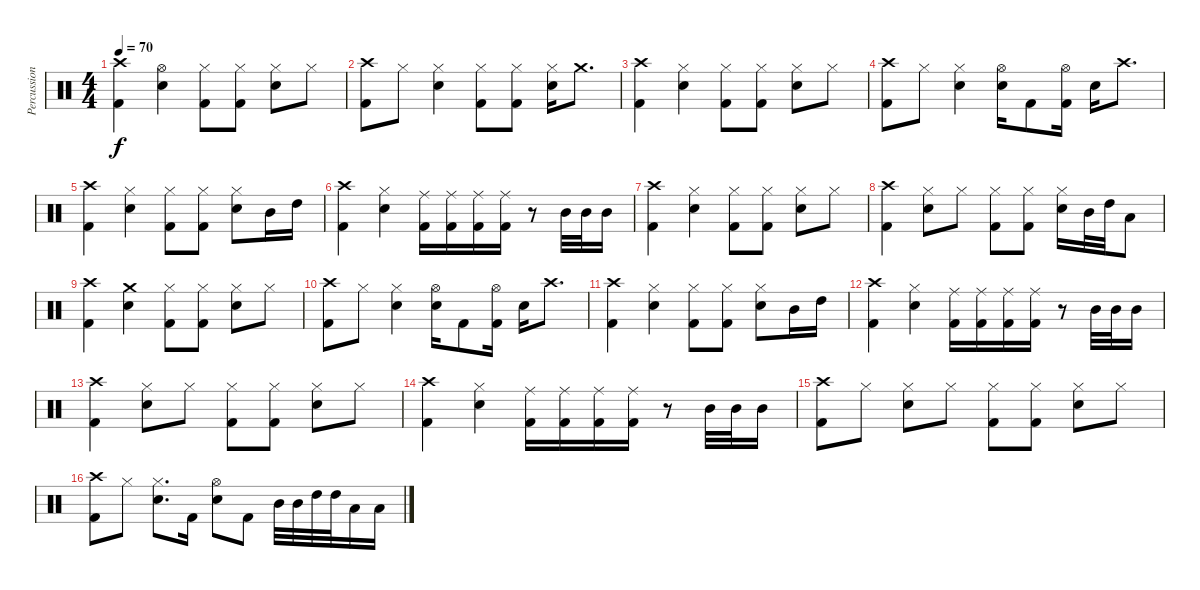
\track ("Percussioni" "Percussion") {instrument percussion}
\staff {score}
\articulation defaults
\ts (4 4)
\tempo 70
\clef neutral
\ks c
("Crash high (hit)" "Kick (hit) 2").4{dy f} ("Hi-Hat (open)" "Snare (hit) 2").4 ("Hi-Hat (closed)" "Kick (hit) 2").8 ("Hi-Hat (closed)" "Kick (hit) 2").8 ("Hi-Hat (closed)" "Snare (hit) 2").8 "Hi-Hat (closed)".8 |
("Crash high (hit)" "Kick (hit) 2").8 "Hi-Hat (closed)".8 ("Hi-Hat (closed)" "Snare (hit) 2").4 ("Hi-Hat (closed)" "Kick (hit) 2").8 ("Hi-Hat (closed)" "Kick (hit) 2").8 ("Hi-Hat (closed)" "Snare (hit) 2").16 "Crash medium (hit)".8{d} |
("Crash high (hit)" "Kick (hit) 2").4 ("Hi-Hat (closed)" "Snare (hit) 2").4 ("Hi-Hat (closed)" "Kick (hit) 2").8 ("Hi-Hat (closed)" "Kick (hit) 2").8 ("Hi-Hat (closed)" "Snare (hit) 2").8 "Hi-Hat (closed)".8 |
("Crash high (hit)" "Kick (hit) 2").8 "Hi-Hat (closed)".8 ("Hi-Hat (closed)" "Snare (hit) 2").4 ("Hi-Hat (open)" "Snare (hit) 2").16 "Kick (hit) 2".8 ("Hi-Hat (open)" "Kick (hit) 2").16 "Snare (hit) 2".16 "Crash high (hit)".8{d} |
("Crash high (hit)" "Kick (hit) 2").4 ("Hi-Hat (closed)" "Snare (hit) 2").4 ("Hi-Hat (closed)" "Kick (hit) 2").8 ("Hi-Hat (closed)" "Kick (hit) 2").8 ("Hi-Hat (closed)" "Snare (hit) 2").8 "Mid Tom (hit)".16 "High Tom (hit)".16 |
("Crash high (hit)" "Kick (hit) 2").4 ("Hi-Hat (closed)" "Snare (hit) 2").4 ("Ride (middle)" "Kick (hit) 2").16 ("Ride (middle)" "Kick (hit) 2").16 ("Ride (middle)" "Kick (hit) 2").16 ("Ride (middle)" "Kick (hit) 2").16 r.8 "Mid Tom (hit)".32 "Mid Tom (hit)".32 "Mid Tom (hit)".16 |
("Crash high (hit)" "Kick (hit) 2").4 ("Hi-Hat (closed)" "Snare (hit) 2").4 ("Hi-Hat (closed)" "Kick (hit) 2").8 ("Hi-Hat (closed)" "Kick (hit) 2").8 ("Hi-Hat (closed)" "Snare (hit) 2").8 "Hi-Hat (closed)".8 |
("Crash high (hit)" "Kick (hit) 2").4 ("Hi-Hat (closed)" "Snare (hit) 2").8 "Hi-Hat (closed)".8 ("Hi-Hat (closed)" "Kick (hit) 2").8 ("Hi-Hat (closed)" "Kick (hit) 2").8 ("Hi-Hat (closed)" "Snare (hit) 2").16 "Mid Tom (hit)".32 "High Tom (hit)".32 "Low Floor Tom (hit)".8 |
("Crash high (hit)" "Kick (hit) 2").4 ("Crash medium (hit)" "Snare (hit) 2").4 ("Hi-Hat (closed)" "Kick (hit) 2").8 ("Hi-Hat (closed)" "Kick (hit) 2").8 ("Hi-Hat (closed)" "Snare (hit) 2").8 "Hi-Hat (closed)".8 |
("Crash high (hit)" "Kick (hit) 2").8 "Hi-Hat (closed)".8 ("Hi-Hat (closed)" "Snare (hit) 2").4 ("Hi-Hat (open)" "Snare (hit) 2").16 "Kick (hit) 2".8 ("Hi-Hat (open)" "Kick (hit) 2").16 "Snare (hit) 2".16 "Crash high (hit)".8{d} |
("Crash high (hit)" "Kick (hit) 2").4 ("Hi-Hat (closed)" "Snare (hit) 2").4 ("Hi-Hat (closed)" "Kick (hit) 2").8 ("Hi-Hat (closed)" "Kick (hit) 2").8 ("Hi-Hat (closed)" "Snare (hit) 2").8 "Mid Tom (hit)".16 "High Tom (hit)".16 |
("Crash high (hit)" "Kick (hit) 2").4 ("Hi-Hat (closed)" "Snare (hit) 2").4 ("Ride (middle)" "Kick (hit) 2").16 ("Ride (middle)" "Kick (hit) 2").16 ("Ride (middle)" "Kick (hit) 2").16 ("Ride (middle)" "Kick (hit) 2").16 r.8 "Mid Tom (hit)".32 "Mid Tom (hit)".32 "Mid Tom (hit)".16 |
("Crash high (hit)" "Kick (hit) 2").4 ("Hi-Hat (closed)" "Snare (hit) 2").8 "Hi-Hat (closed)".8 ("Hi-Hat (closed)" "Kick (hit) 2").8 ("Hi-Hat (closed)" "Kick (hit) 2").8 ("Hi-Hat (closed)" "Snare (hit) 2").8 "Hi-Hat (closed)".8 |
("Crash high (hit)" "Kick (hit) 2").4 ("Hi-Hat (closed)" "Snare (hit) 2").4 ("Ride (middle)" "Kick (hit) 2").16 ("Ride (middle)" "Kick (hit) 2").16 ("Ride (middle)" "Kick (hit) 2").16 ("Ride (middle)" "Kick (hit) 2").16 r.8 "Mid Tom (hit)".32 "Mid Tom (hit)".32 "Mid Tom (hit)".16 |
("Crash high (hit)" "Kick (hit) 2").8 "Hi-Hat (closed)".8 ("Hi-Hat (closed)" "Snare (hit) 2").8 "Hi-Hat (closed)".8 ("Hi-Hat (closed)" "Kick (hit) 2").8 ("Hi-Hat (closed)" "Kick (hit) 2").8 ("Hi-Hat (closed)" "Snare (hit) 2").8 "Hi-Hat (closed)".8 |
("Crash high (hit)" "Kick (hit) 2").8 "Hi-Hat (closed)".8 ("Hi-Hat (closed)" "Snare (hit) 2").8{d} "Kick (hit) 2".16 ("Hi-Hat (open)" "Snare (hit) 2").8 "Kick (hit) 2".8 "Mid Tom (hit)".32 "Mid Tom (hit)".32 "High Tom (hit)".32 "High Tom (hit)".32 "Low Tom (hit)".16 "Low Tom (hit)".16
